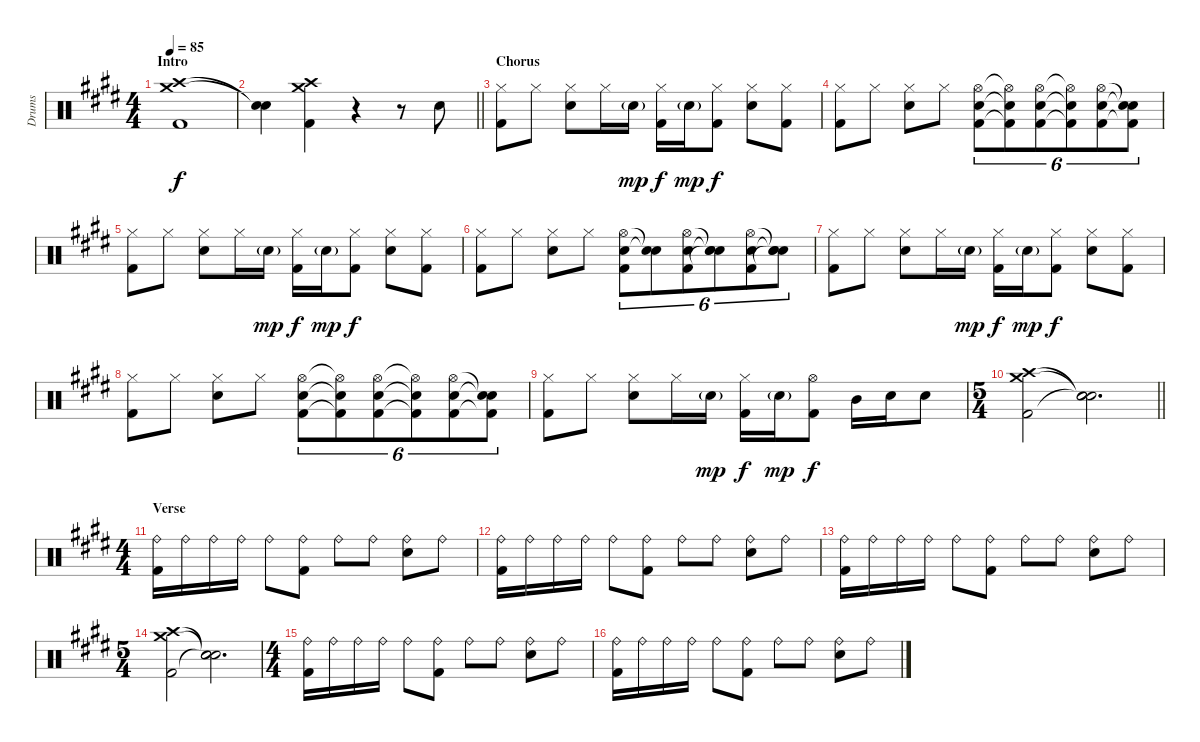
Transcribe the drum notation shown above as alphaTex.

\track ("Drums" "Drums") {instrument percussion}
\staff {score}
\articulation defaults
\ts (4 4)
\section ("" "Intro")
\tempo 85
\clef neutral
\ks e
("Crash high (hit)" "Crash medium (hit)" "Kick (hit) 2").1{dy f} |
\barLineRight lightlight
("Snare (hit)"{t} "Snare (hit)"{t}).4 ("Crash high (hit)" "Crash medium (hit)" "Kick (hit) 2").4 r.4 r.8 "Snare (hit) 2".8 |
\section ("" "Chorus")
("Hi-Hat (closed)" "Kick (hit) 2").8 "Hi-Hat (closed)".8 ("Hi-Hat (closed)" "Snare (hit) 2").8 "Hi-Hat (closed)".16 "Snare (hit) 2"{g}.16{dy mp} ("Hi-Hat (closed)" "Kick (hit) 2").16{dy f} "Snare (hit) 2"{g}.16{dy mp} ("Hi-Hat (closed)" "Kick (hit) 2").8{dy f} ("Hi-Hat (closed)" "Snare (hit) 2").8 ("Hi-Hat (closed)" "Kick (hit) 2").8 |
("Hi-Hat (closed)" "Kick (hit) 2").8 "Hi-Hat (closed)".8 ("Hi-Hat (closed)" "Snare (hit) 2").8 "Hi-Hat (closed)".8 ("Hi-Hat (open)" "Snare (hit) 2" "Kick (hit) 2").8{tu (6 4)} ("Hi-Hat (open)"{t} "Snare (hit) 2"{t} "Kick (hit) 2"{t}).8{tu (6 4)} ("Hi-Hat (open)" "Snare (hit) 2" "Kick (hit) 2").8{tu (6 4)} ("Hi-Hat (open)"{t} "Snare (hit) 2"{t} "Kick (hit) 2"{t}).8{tu (6 4)} ("Hi-Hat (open)" "Snare (hit) 2" "Kick (hit) 2").8{tu (6 4)} ("Snare (hit)"{t} "Snare (hit)"{t} "Kick (hit) 2"{t}).8{tu (6 4)} |
("Hi-Hat (closed)" "Kick (hit) 2").8 "Hi-Hat (closed)".8 ("Hi-Hat (closed)" "Snare (hit) 2").8 "Hi-Hat (closed)".16 "Snare (hit) 2"{g}.16{dy mp} ("Hi-Hat (closed)" "Kick (hit) 2").16{dy f} "Snare (hit) 2"{g}.16{dy mp} ("Hi-Hat (closed)" "Kick (hit) 2").8{dy f} ("Hi-Hat (closed)" "Snare (hit) 2").8 ("Hi-Hat (closed)" "Kick (hit) 2").8 |
("Hi-Hat (closed)" "Kick (hit) 2").8 "Hi-Hat (closed)".8 ("Hi-Hat (closed)" "Snare (hit) 2").8 "Hi-Hat (closed)".8 ("Hi-Hat (open)" "Snare (hit) 2" "Kick (hit) 2").8{tu (6 4)} ("Snare (hit)"{t} "Snare (hit)"{t}).8{tu (6 4)} ("Hi-Hat (open)" "Snare (hit) 2" "Kick (hit) 2").8{tu (6 4)} ("Snare (hit)"{t} "Snare (hit)"{t} "Snare (hit)"{t}).8{tu (6 4)} ("Hi-Hat (open)" "Snare (hit) 2" "Kick (hit) 2").8{tu (6 4)} ("Snare (hit)"{t} "Snare (hit)"{t} "Snare (hit)"{t}).8{tu (6 4)} |
("Hi-Hat (closed)" "Kick (hit) 2").8 "Hi-Hat (closed)".8 ("Hi-Hat (closed)" "Snare (hit) 2").8 "Hi-Hat (closed)".16 "Snare (hit) 2"{g}.16{dy mp} ("Hi-Hat (closed)" "Kick (hit) 2").16{dy f} "Snare (hit) 2"{g}.16{dy mp} ("Hi-Hat (closed)" "Kick (hit) 2").8{dy f} ("Hi-Hat (closed)" "Snare (hit) 2").8 ("Hi-Hat (closed)" "Kick (hit) 2").8 |
("Hi-Hat (closed)" "Kick (hit) 2").8 "Hi-Hat (closed)".8 ("Hi-Hat (closed)" "Snare (hit) 2").8 "Hi-Hat (closed)".8 ("Hi-Hat (open)" "Snare (hit) 2" "Kick (hit) 2").8{tu (6 4)} ("Hi-Hat (open)"{t} "Snare (hit) 2"{t} "Kick (hit) 2"{t}).8{tu (6 4)} ("Hi-Hat (open)" "Snare (hit) 2" "Kick (hit) 2").8{tu (6 4)} ("Hi-Hat (open)"{t} "Snare (hit) 2"{t} "Kick (hit) 2"{t}).8{tu (6 4)} ("Hi-Hat (open)" "Snare (hit) 2" "Kick (hit) 2").8{tu (6 4)} ("Snare (hit)"{t} "Snare (hit)"{t} "Kick (hit) 2"{t}).8{tu (6 4)} |
("Hi-Hat (closed)" "Kick (hit) 2").8 "Hi-Hat (closed)".8 ("Hi-Hat (closed)" "Snare (hit) 2").8 "Hi-Hat (closed)".16 "Snare (hit) 2"{g}.16{dy mp} ("Hi-Hat (closed)" "Kick (hit) 2").16{dy f} "Snare (hit) 2"{g}.16{dy mp} ("Hi-Hat (open)" "Kick (hit) 2").8{dy f} "Mid Tom (hit)".16 "Snare (hit) 2".16 "Snare (hit) 2".8 |
\ts (5 4)
\barLineRight lightlight
("Crash high (hit)" "Crash medium (hit)" "Kick (hit) 2").2 ("Snare (hit)"{t} "Snare (hit)"{t} "Snare (hit)"{t}).2{d} |
\ts (4 4)
\section ("" "Verse")
("Ride (bell)" "Kick (hit) 2").16 "Ride (bell)".16 "Ride (bell)".16 "Ride (bell)".16 "Ride (bell)".8 ("Ride (bell)" "Kick (hit) 2").8 "Ride (bell)".8 "Ride (bell)".8 ("Ride (bell)" "Snare (hit) 2").8 "Ride (bell)".8 |
("Ride (bell)" "Kick (hit) 2").16 "Ride (bell)".16 "Ride (bell)".16 "Ride (bell)".16 "Ride (bell)".8 ("Ride (bell)" "Kick (hit) 2").8 "Ride (bell)".8 "Ride (bell)".8 ("Ride (bell)" "Snare (hit) 2").8 "Ride (bell)".8 |
("Ride (bell)" "Kick (hit) 2").16 "Ride (bell)".16 "Ride (bell)".16 "Ride (bell)".16 "Ride (bell)".8 ("Ride (bell)" "Kick (hit) 2").8 "Ride (bell)".8 "Ride (bell)".8 ("Ride (bell)" "Snare (hit) 2").8 "Ride (bell)".8 |
\ts (5 4)
("Crash high (hit)" "Crash medium (hit)" "Kick (hit) 2").2 ("Snare (hit)"{t} "Snare (hit)"{t} "Snare (hit)"{t}).2{d} |
\ts (4 4)
("Ride (bell)" "Kick (hit) 2").16 "Ride (bell)".16 "Ride (bell)".16 "Ride (bell)".16 "Ride (bell)".8 ("Ride (bell)" "Kick (hit) 2").8 "Ride (bell)".8 "Ride (bell)".8 ("Ride (bell)" "Snare (hit) 2").8 "Ride (bell)".8 |
("Ride (bell)" "Kick (hit) 2").16 "Ride (bell)".16 "Ride (bell)".16 "Ride (bell)".16 "Ride (bell)".8 ("Ride (bell)" "Kick (hit) 2").8 "Ride (bell)".8 "Ride (bell)".8 ("Ride (bell)" "Snare (hit) 2").8 "Ride (bell)".8
